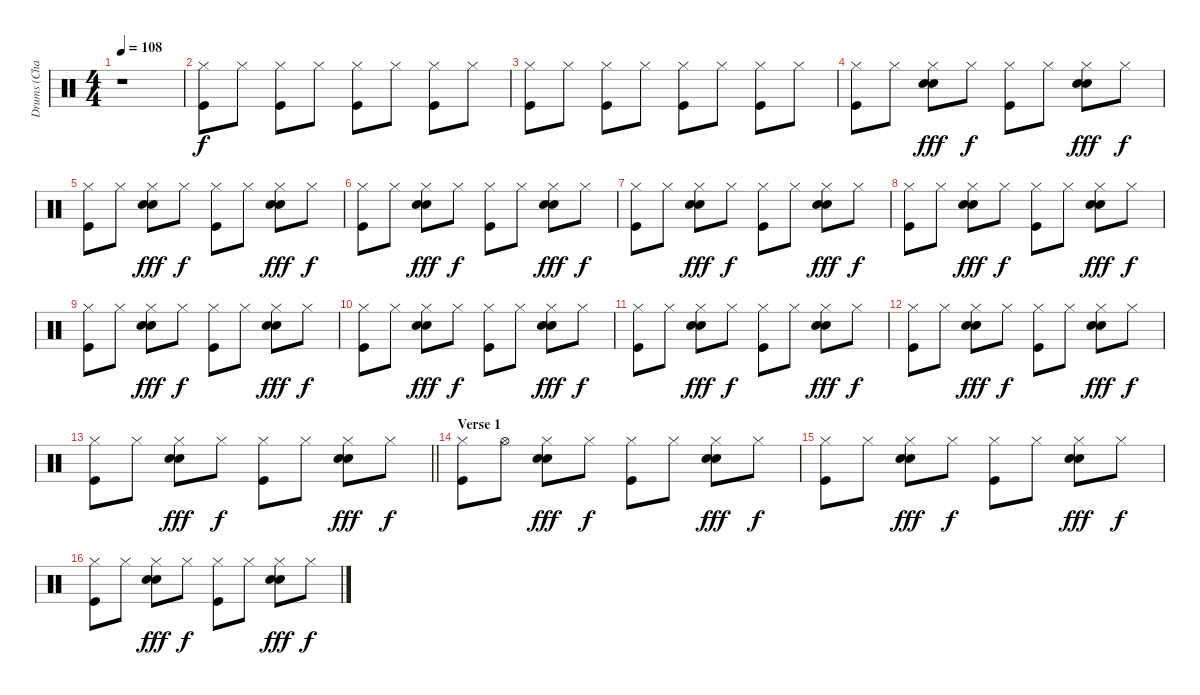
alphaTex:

\track ("Drums (Charlie)" "Drums (Cha") {instrument percussion}
\staff {score}
\articulation defaults
\ts (4 4)
\tempo 108
\clef neutral
\ks c
r.1{dy f} |
("Hi-Hat (closed)" "Kick (hit)").8 "Hi-Hat (closed)".8 ("Hi-Hat (closed)" "Kick (hit)").8 "Hi-Hat (closed)".8 ("Hi-Hat (closed)" "Kick (hit)").8 "Hi-Hat (closed)".8 ("Hi-Hat (closed)" "Kick (hit)").8 "Hi-Hat (closed)".8 |
("Hi-Hat (closed)" "Kick (hit)").8 "Hi-Hat (closed)".8 ("Hi-Hat (closed)" "Kick (hit)").8 "Hi-Hat (closed)".8 ("Hi-Hat (closed)" "Kick (hit)").8 "Hi-Hat (closed)".8 ("Hi-Hat (closed)" "Kick (hit)").8 "Hi-Hat (closed)".8 |
("Hi-Hat (closed)" "Kick (hit)").8 "Hi-Hat (closed)".8 ("Hi-Hat (closed)" "Snare (hit) 2" "Electric Snare (hit)").8{dy fff} "Hi-Hat (closed)".8{dy f} ("Hi-Hat (closed)" "Kick (hit)").8 "Hi-Hat (closed)".8 ("Hi-Hat (closed)" "Snare (hit) 2" "Electric Snare (hit)").8{dy fff} "Hi-Hat (closed)".8{dy f} |
("Hi-Hat (closed)" "Kick (hit)").8 "Hi-Hat (closed)".8 ("Hi-Hat (closed)" "Snare (hit) 2" "Electric Snare (hit)").8{dy fff} "Hi-Hat (closed)".8{dy f} ("Hi-Hat (closed)" "Kick (hit)").8 "Hi-Hat (closed)".8 ("Hi-Hat (closed)" "Snare (hit) 2" "Electric Snare (hit)").8{dy fff} "Hi-Hat (closed)".8{dy f} |
("Hi-Hat (closed)" "Kick (hit)").8 "Hi-Hat (closed)".8 ("Hi-Hat (closed)" "Snare (hit) 2" "Electric Snare (hit)").8{dy fff} "Hi-Hat (closed)".8{dy f} ("Hi-Hat (closed)" "Kick (hit)").8 "Hi-Hat (closed)".8 ("Hi-Hat (closed)" "Snare (hit) 2" "Electric Snare (hit)").8{dy fff} "Hi-Hat (closed)".8{dy f} |
("Hi-Hat (closed)" "Kick (hit)").8 "Hi-Hat (closed)".8 ("Hi-Hat (closed)" "Snare (hit) 2" "Electric Snare (hit)").8{dy fff} "Hi-Hat (closed)".8{dy f} ("Hi-Hat (closed)" "Kick (hit)").8 "Hi-Hat (closed)".8 ("Hi-Hat (closed)" "Snare (hit) 2" "Electric Snare (hit)").8{dy fff} "Hi-Hat (closed)".8{dy f} |
("Hi-Hat (closed)" "Kick (hit)").8 "Hi-Hat (closed)".8 ("Hi-Hat (closed)" "Snare (hit) 2" "Electric Snare (hit)").8{dy fff} "Hi-Hat (closed)".8{dy f} ("Hi-Hat (closed)" "Kick (hit)").8 "Hi-Hat (closed)".8 ("Hi-Hat (closed)" "Snare (hit) 2" "Electric Snare (hit)").8{dy fff} "Hi-Hat (closed)".8{dy f} |
("Hi-Hat (closed)" "Kick (hit)").8 "Hi-Hat (closed)".8 ("Hi-Hat (closed)" "Snare (hit) 2" "Electric Snare (hit)").8{dy fff} "Hi-Hat (closed)".8{dy f} ("Hi-Hat (closed)" "Kick (hit)").8 "Hi-Hat (closed)".8 ("Hi-Hat (closed)" "Snare (hit) 2" "Electric Snare (hit)").8{dy fff} "Hi-Hat (closed)".8{dy f} |
("Hi-Hat (closed)" "Kick (hit)").8 "Hi-Hat (closed)".8 ("Hi-Hat (closed)" "Snare (hit) 2" "Electric Snare (hit)").8{dy fff} "Hi-Hat (closed)".8{dy f} ("Hi-Hat (closed)" "Kick (hit)").8 "Hi-Hat (closed)".8 ("Hi-Hat (closed)" "Snare (hit) 2" "Electric Snare (hit)").8{dy fff} "Hi-Hat (closed)".8{dy f} |
("Hi-Hat (closed)" "Kick (hit)").8 "Hi-Hat (closed)".8 ("Hi-Hat (closed)" "Snare (hit) 2" "Electric Snare (hit)").8{dy fff} "Hi-Hat (closed)".8{dy f} ("Hi-Hat (closed)" "Kick (hit)").8 "Hi-Hat (closed)".8 ("Hi-Hat (closed)" "Snare (hit) 2" "Electric Snare (hit)").8{dy fff} "Hi-Hat (closed)".8{dy f} |
("Hi-Hat (closed)" "Kick (hit)").8 "Hi-Hat (closed)".8 ("Hi-Hat (closed)" "Snare (hit) 2" "Electric Snare (hit)").8{dy fff} "Hi-Hat (closed)".8{dy f} ("Hi-Hat (closed)" "Kick (hit)").8 "Hi-Hat (closed)".8 ("Hi-Hat (closed)" "Snare (hit) 2" "Electric Snare (hit)").8{dy fff} "Hi-Hat (closed)".8{dy f} |
\barLineRight lightlight
("Hi-Hat (closed)" "Kick (hit)").8 "Hi-Hat (closed)".8 ("Hi-Hat (closed)" "Snare (hit) 2" "Electric Snare (hit)").8{dy fff} "Hi-Hat (closed)".8{dy f} ("Hi-Hat (closed)" "Kick (hit)").8 "Hi-Hat (closed)".8 ("Hi-Hat (closed)" "Snare (hit) 2" "Electric Snare (hit)").8{dy fff} "Hi-Hat (closed)".8{dy f} |
\section ("" "Verse 1")
("Hi-Hat (closed)" "Kick (hit)").8 "Hi-Hat (open)".8 ("Hi-Hat (closed)" "Snare (hit) 2" "Electric Snare (hit)").8{dy fff} "Hi-Hat (closed)".8{dy f} ("Hi-Hat (closed)" "Kick (hit)").8 "Hi-Hat (closed)".8 ("Hi-Hat (closed)" "Snare (hit) 2" "Electric Snare (hit)").8{dy fff} "Hi-Hat (closed)".8{dy f} |
("Hi-Hat (closed)" "Kick (hit)").8 "Hi-Hat (closed)".8 ("Hi-Hat (closed)" "Snare (hit) 2" "Electric Snare (hit)").8{dy fff} "Hi-Hat (closed)".8{dy f} ("Hi-Hat (closed)" "Kick (hit)").8 "Hi-Hat (closed)".8 ("Hi-Hat (closed)" "Snare (hit) 2" "Electric Snare (hit)").8{dy fff} "Hi-Hat (closed)".8{dy f} |
("Hi-Hat (closed)" "Kick (hit)").8 "Hi-Hat (closed)".8 ("Hi-Hat (closed)" "Snare (hit) 2" "Electric Snare (hit)").8{dy fff} "Hi-Hat (closed)".8{dy f} ("Hi-Hat (closed)" "Kick (hit)").8 "Hi-Hat (closed)".8 ("Hi-Hat (closed)" "Snare (hit) 2" "Electric Snare (hit)").8{dy fff} "Hi-Hat (closed)".8{dy f}
